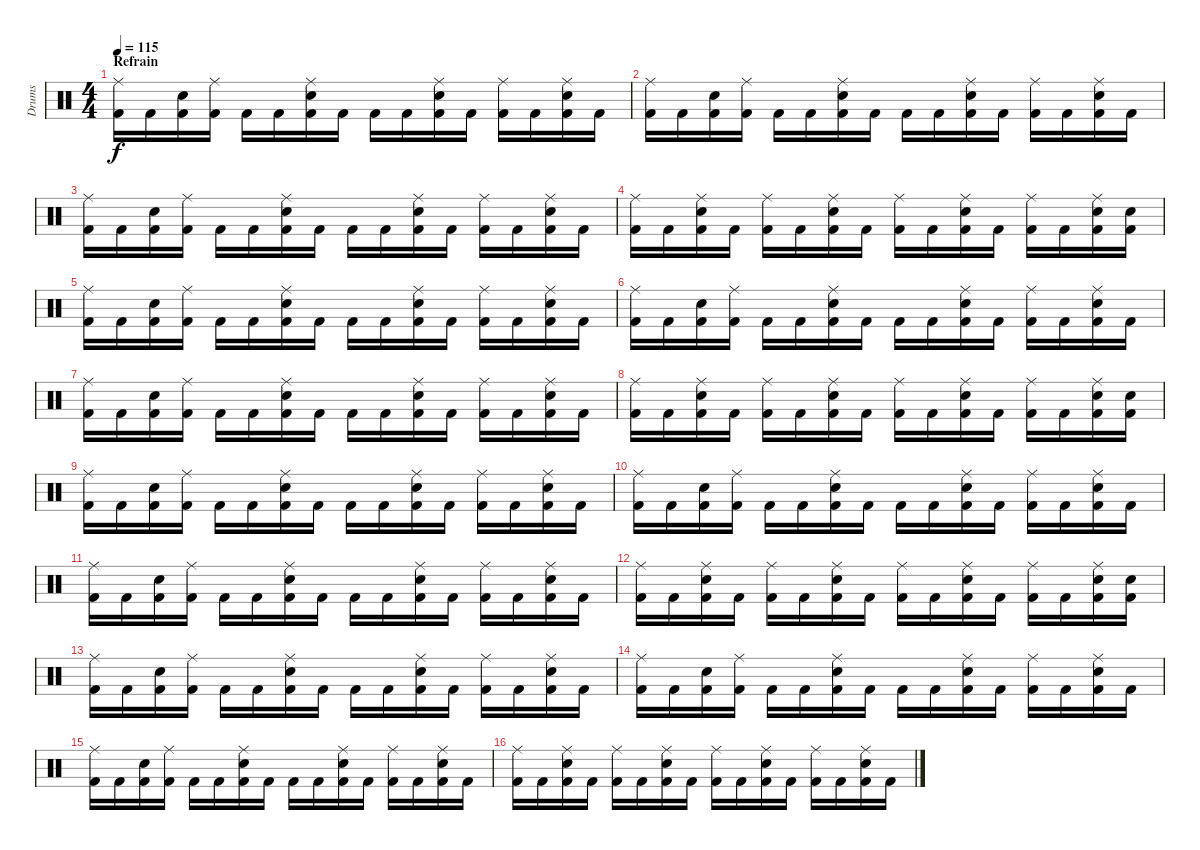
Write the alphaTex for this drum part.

\track ("Drums" "Drums") {instrument percussion}
\staff {score}
\articulation defaults
\ts (4 4)
\section ("" "Refrain")
\tempo 115
\clef neutral
\ks c
("Ride (middle)" "Kick (hit) 2").16{dy f} "Kick (hit) 2".16 ("Electric Snare (hit)" "Kick (hit) 2").16 ("Ride (middle)" "Kick (hit) 2").16 "Kick (hit) 2".16 "Kick (hit) 2".16 ("Ride (middle)" "Electric Snare (hit)" "Kick (hit) 2").16 "Kick (hit) 2".16 "Kick (hit) 2".16 "Kick (hit) 2".16 ("Ride (middle)" "Electric Snare (hit)" "Kick (hit) 2").16 "Kick (hit) 2".16 ("Ride (middle)" "Kick (hit) 2").16 "Kick (hit) 2".16 ("Ride (middle)" "Electric Snare (hit)" "Kick (hit) 2").16 "Kick (hit) 2".16 |
("Ride (middle)" "Kick (hit) 2").16 "Kick (hit) 2".16 ("Electric Snare (hit)" "Kick (hit) 2").16 ("Ride (middle)" "Kick (hit) 2").16 "Kick (hit) 2".16 "Kick (hit) 2".16 ("Ride (middle)" "Electric Snare (hit)" "Kick (hit) 2").16 "Kick (hit) 2".16 "Kick (hit) 2".16 "Kick (hit) 2".16 ("Ride (middle)" "Electric Snare (hit)" "Kick (hit) 2").16 "Kick (hit) 2".16 ("Ride (middle)" "Kick (hit) 2").16 "Kick (hit) 2".16 ("Ride (middle)" "Electric Snare (hit)" "Kick (hit) 2").16 "Kick (hit) 2".16 |
("Ride (middle)" "Kick (hit) 2").16 "Kick (hit) 2".16 ("Electric Snare (hit)" "Kick (hit) 2").16 ("Ride (middle)" "Kick (hit) 2").16 "Kick (hit) 2".16 "Kick (hit) 2".16 ("Ride (middle)" "Electric Snare (hit)" "Kick (hit) 2").16 "Kick (hit) 2".16 "Kick (hit) 2".16 "Kick (hit) 2".16 ("Ride (middle)" "Electric Snare (hit)" "Kick (hit) 2").16 "Kick (hit) 2".16 ("Ride (middle)" "Kick (hit) 2").16 "Kick (hit) 2".16 ("Ride (middle)" "Electric Snare (hit)" "Kick (hit) 2").16 "Kick (hit) 2".16 |
("Ride (middle)" "Kick (hit) 2").16 "Kick (hit) 2".16 ("Ride (middle)" "Electric Snare (hit)" "Kick (hit) 2").16 "Kick (hit) 2".16 ("Ride (middle)" "Kick (hit) 2").16 "Kick (hit) 2".16 ("Ride (middle)" "Electric Snare (hit)" "Kick (hit) 2").16 "Kick (hit) 2".16 ("Ride (middle)" "Kick (hit) 2").16 "Kick (hit) 2".16 ("Ride (middle)" "Electric Snare (hit)" "Kick (hit) 2").16 "Kick (hit) 2".16 ("Ride (middle)" "Kick (hit) 2").16 "Kick (hit) 2".16 ("Ride (middle)" "Electric Snare (hit)" "Kick (hit) 2").16 ("Electric Snare (hit)" "Kick (hit) 2").16 |
("Ride (middle)" "Kick (hit) 2").16 "Kick (hit) 2".16 ("Electric Snare (hit)" "Kick (hit) 2").16 ("Ride (middle)" "Kick (hit) 2").16 "Kick (hit) 2".16 "Kick (hit) 2".16 ("Ride (middle)" "Electric Snare (hit)" "Kick (hit) 2").16 "Kick (hit) 2".16 "Kick (hit) 2".16 "Kick (hit) 2".16 ("Ride (middle)" "Electric Snare (hit)" "Kick (hit) 2").16 "Kick (hit) 2".16 ("Ride (middle)" "Kick (hit) 2").16 "Kick (hit) 2".16 ("Ride (middle)" "Electric Snare (hit)" "Kick (hit) 2").16 "Kick (hit) 2".16 |
("Ride (middle)" "Kick (hit) 2").16 "Kick (hit) 2".16 ("Electric Snare (hit)" "Kick (hit) 2").16 ("Ride (middle)" "Kick (hit) 2").16 "Kick (hit) 2".16 "Kick (hit) 2".16 ("Ride (middle)" "Electric Snare (hit)" "Kick (hit) 2").16 "Kick (hit) 2".16 "Kick (hit) 2".16 "Kick (hit) 2".16 ("Ride (middle)" "Electric Snare (hit)" "Kick (hit) 2").16 "Kick (hit) 2".16 ("Ride (middle)" "Kick (hit) 2").16 "Kick (hit) 2".16 ("Ride (middle)" "Electric Snare (hit)" "Kick (hit) 2").16 "Kick (hit) 2".16 |
("Ride (middle)" "Kick (hit) 2").16 "Kick (hit) 2".16 ("Electric Snare (hit)" "Kick (hit) 2").16 ("Ride (middle)" "Kick (hit) 2").16 "Kick (hit) 2".16 "Kick (hit) 2".16 ("Ride (middle)" "Electric Snare (hit)" "Kick (hit) 2").16 "Kick (hit) 2".16 "Kick (hit) 2".16 "Kick (hit) 2".16 ("Ride (middle)" "Electric Snare (hit)" "Kick (hit) 2").16 "Kick (hit) 2".16 ("Ride (middle)" "Kick (hit) 2").16 "Kick (hit) 2".16 ("Ride (middle)" "Electric Snare (hit)" "Kick (hit) 2").16 "Kick (hit) 2".16 |
("Ride (middle)" "Kick (hit) 2").16 "Kick (hit) 2".16 ("Ride (middle)" "Electric Snare (hit)" "Kick (hit) 2").16 "Kick (hit) 2".16 ("Ride (middle)" "Kick (hit) 2").16 "Kick (hit) 2".16 ("Ride (middle)" "Electric Snare (hit)" "Kick (hit) 2").16 "Kick (hit) 2".16 ("Ride (middle)" "Kick (hit) 2").16 "Kick (hit) 2".16 ("Ride (middle)" "Electric Snare (hit)" "Kick (hit) 2").16 "Kick (hit) 2".16 ("Ride (middle)" "Kick (hit) 2").16 "Kick (hit) 2".16 ("Ride (middle)" "Electric Snare (hit)" "Kick (hit) 2").16 ("Electric Snare (hit)" "Kick (hit) 2").16 |
("Ride (middle)" "Kick (hit) 2").16 "Kick (hit) 2".16 ("Electric Snare (hit)" "Kick (hit) 2").16 ("Ride (middle)" "Kick (hit) 2").16 "Kick (hit) 2".16 "Kick (hit) 2".16 ("Ride (middle)" "Electric Snare (hit)" "Kick (hit) 2").16 "Kick (hit) 2".16 "Kick (hit) 2".16 "Kick (hit) 2".16 ("Ride (middle)" "Electric Snare (hit)" "Kick (hit) 2").16 "Kick (hit) 2".16 ("Ride (middle)" "Kick (hit) 2").16 "Kick (hit) 2".16 ("Ride (middle)" "Electric Snare (hit)" "Kick (hit) 2").16 "Kick (hit) 2".16 |
("Ride (middle)" "Kick (hit) 2").16 "Kick (hit) 2".16 ("Electric Snare (hit)" "Kick (hit) 2").16 ("Ride (middle)" "Kick (hit) 2").16 "Kick (hit) 2".16 "Kick (hit) 2".16 ("Ride (middle)" "Electric Snare (hit)" "Kick (hit) 2").16 "Kick (hit) 2".16 "Kick (hit) 2".16 "Kick (hit) 2".16 ("Ride (middle)" "Electric Snare (hit)" "Kick (hit) 2").16 "Kick (hit) 2".16 ("Ride (middle)" "Kick (hit) 2").16 "Kick (hit) 2".16 ("Ride (middle)" "Electric Snare (hit)" "Kick (hit) 2").16 "Kick (hit) 2".16 |
("Ride (middle)" "Kick (hit) 2").16 "Kick (hit) 2".16 ("Electric Snare (hit)" "Kick (hit) 2").16 ("Ride (middle)" "Kick (hit) 2").16 "Kick (hit) 2".16 "Kick (hit) 2".16 ("Ride (middle)" "Electric Snare (hit)" "Kick (hit) 2").16 "Kick (hit) 2".16 "Kick (hit) 2".16 "Kick (hit) 2".16 ("Ride (middle)" "Electric Snare (hit)" "Kick (hit) 2").16 "Kick (hit) 2".16 ("Ride (middle)" "Kick (hit) 2").16 "Kick (hit) 2".16 ("Ride (middle)" "Electric Snare (hit)" "Kick (hit) 2").16 "Kick (hit) 2".16 |
("Ride (middle)" "Kick (hit) 2").16 "Kick (hit) 2".16 ("Ride (middle)" "Electric Snare (hit)" "Kick (hit) 2").16 "Kick (hit) 2".16 ("Ride (middle)" "Kick (hit) 2").16 "Kick (hit) 2".16 ("Ride (middle)" "Electric Snare (hit)" "Kick (hit) 2").16 "Kick (hit) 2".16 ("Ride (middle)" "Kick (hit) 2").16 "Kick (hit) 2".16 ("Ride (middle)" "Electric Snare (hit)" "Kick (hit) 2").16 "Kick (hit) 2".16 ("Ride (middle)" "Kick (hit) 2").16 "Kick (hit) 2".16 ("Ride (middle)" "Electric Snare (hit)" "Kick (hit) 2").16 ("Electric Snare (hit)" "Kick (hit) 2").16 |
("Ride (middle)" "Kick (hit) 2").16 "Kick (hit) 2".16 ("Electric Snare (hit)" "Kick (hit) 2").16 ("Ride (middle)" "Kick (hit) 2").16 "Kick (hit) 2".16 "Kick (hit) 2".16 ("Ride (middle)" "Electric Snare (hit)" "Kick (hit) 2").16 "Kick (hit) 2".16 "Kick (hit) 2".16 "Kick (hit) 2".16 ("Ride (middle)" "Electric Snare (hit)" "Kick (hit) 2").16 "Kick (hit) 2".16 ("Ride (middle)" "Kick (hit) 2").16 "Kick (hit) 2".16 ("Ride (middle)" "Electric Snare (hit)" "Kick (hit) 2").16 "Kick (hit) 2".16 |
("Ride (middle)" "Kick (hit) 2").16 "Kick (hit) 2".16 ("Electric Snare (hit)" "Kick (hit) 2").16 ("Ride (middle)" "Kick (hit) 2").16 "Kick (hit) 2".16 "Kick (hit) 2".16 ("Ride (middle)" "Electric Snare (hit)" "Kick (hit) 2").16 "Kick (hit) 2".16 "Kick (hit) 2".16 "Kick (hit) 2".16 ("Ride (middle)" "Electric Snare (hit)" "Kick (hit) 2").16 "Kick (hit) 2".16 ("Ride (middle)" "Kick (hit) 2").16 "Kick (hit) 2".16 ("Ride (middle)" "Electric Snare (hit)" "Kick (hit) 2").16 "Kick (hit) 2".16 |
("Ride (middle)" "Kick (hit) 2").16 "Kick (hit) 2".16 ("Electric Snare (hit)" "Kick (hit) 2").16 ("Ride (middle)" "Kick (hit) 2").16 "Kick (hit) 2".16 "Kick (hit) 2".16 ("Ride (middle)" "Electric Snare (hit)" "Kick (hit) 2").16 "Kick (hit) 2".16 "Kick (hit) 2".16 "Kick (hit) 2".16 ("Ride (middle)" "Electric Snare (hit)" "Kick (hit) 2").16 "Kick (hit) 2".16 ("Ride (middle)" "Kick (hit) 2").16 "Kick (hit) 2".16 ("Ride (middle)" "Electric Snare (hit)" "Kick (hit) 2").16 "Kick (hit) 2".16 |
("Ride (middle)" "Kick (hit) 2").16 "Kick (hit) 2".16 ("Ride (middle)" "Electric Snare (hit)" "Kick (hit) 2").16 "Kick (hit) 2".16 ("Ride (middle)" "Kick (hit) 2").16 "Kick (hit) 2".16 ("Ride (middle)" "Electric Snare (hit)" "Kick (hit) 2").16 "Kick (hit) 2".16 ("Ride (middle)" "Kick (hit) 2").16 "Kick (hit) 2".16 ("Ride (middle)" "Electric Snare (hit)" "Kick (hit) 2").16 "Kick (hit) 2".16 ("Ride (middle)" "Kick (hit) 2").16 "Kick (hit) 2".16 ("Ride (middle)" "Electric Snare (hit)" "Kick (hit) 2").16 "Kick (hit) 2".16
